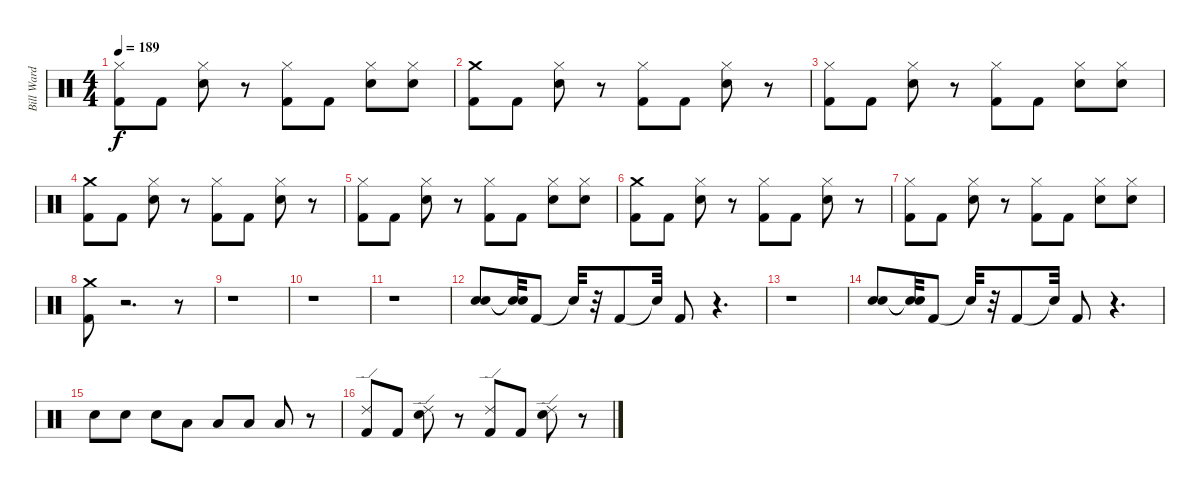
\track ("Bill Ward" "Bill Ward") {instrument percussion}
\staff {score}
\articulation defaults
\ts (4 4)
\tempo 189
\clef neutral
\ks c
("Hi-Hat (closed)" "Kick (hit) 2").8{dy f} "Kick (hit) 2".8 ("Electric Snare (hit)" "Hi-Hat (closed)").8 r.8 ("Hi-Hat (closed)" "Kick (hit) 2").8 "Kick (hit) 2".8 ("Hi-Hat (closed)" "Electric Snare (hit)").8 ("Hi-Hat (closed)" "Electric Snare (hit)").8 |
("Crash medium (hit)" "Kick (hit) 2").8 "Kick (hit) 2".8 ("Hi-Hat (closed)" "Electric Snare (hit)").8 r.8 ("Hi-Hat (closed)" "Kick (hit) 2").8 "Kick (hit) 2".8 ("Electric Snare (hit)" "Hi-Hat (closed)").8 r.8 |
("Hi-Hat (closed)" "Kick (hit) 2").8 "Kick (hit) 2".8 ("Hi-Hat (closed)" "Electric Snare (hit)").8 r.8 ("Hi-Hat (closed)" "Kick (hit) 2").8 "Kick (hit) 2".8 ("Hi-Hat (closed)" "Electric Snare (hit)").8 ("Hi-Hat (closed)" "Electric Snare (hit)").8 |
("Kick (hit) 2" "Crash medium (hit)").8 "Kick (hit) 2".8 ("Hi-Hat (closed)" "Electric Snare (hit)").8 r.8 ("Hi-Hat (closed)" "Kick (hit) 2").8 "Kick (hit) 2".8 ("Hi-Hat (closed)" "Electric Snare (hit)").8 r.8 |
("Kick (hit) 2" "Hi-Hat (closed)").8 "Kick (hit) 2".8 ("Electric Snare (hit)" "Hi-Hat (closed)").8 r.8 ("Hi-Hat (closed)" "Kick (hit) 2").8 "Kick (hit) 2".8 ("Hi-Hat (closed)" "Electric Snare (hit)").8 ("Hi-Hat (closed)" "Electric Snare (hit)").8 |
("Kick (hit) 2" "Crash medium (hit)").8 "Kick (hit) 2".8 ("Electric Snare (hit)" "Hi-Hat (closed)").8 r.8 ("Kick (hit) 2" "Hi-Hat (closed)").8 "Kick (hit) 2".8 ("Hi-Hat (closed)" "Electric Snare (hit)").8 r.8 |
("Hi-Hat (closed)" "Kick (hit) 2").8 "Kick (hit) 2".8 ("Hi-Hat (closed)" "Electric Snare (hit)").8 r.8 ("Hi-Hat (closed)" "Kick (hit) 2").8 "Kick (hit) 2".8 ("Hi-Hat (closed)" "Electric Snare (hit)").8 ("Electric Snare (hit)" "Hi-Hat (closed)").8 |
("Crash medium (hit)" "Kick (hit) 2").8 r.2{d} r.8 |
r.1 |
r.1 |
r.1 |
("Electric Snare (hit)" "Electric Snare (hit)").8 ("Snare (hit)"{t} "Snare (hit)"{t}).32 "Kick (hit) 2".8 "Snare (hit)"{t}.32 r.32 "Kick (hit) 2".8 "Snare (hit)"{t}.32 "Kick (hit) 2".8 r.4{d} |
r.1 |
("Electric Snare (hit)" "Electric Snare (hit)").8 ("Snare (hit)"{t} "Snare (hit)"{t}).32 "Kick (hit) 2".8 "Snare (hit)"{t}.32 r.32 "Kick (hit) 2".8 "Snare (hit)"{t}.32 "Kick (hit) 2".8 r.4{d} |
"Electric Snare (hit)".8 "Electric Snare (hit)".8 "Electric Snare (hit)".8 "Low Tom (hit)".8 "Low Tom (hit)".8 "Low Tom (hit)".8 "Low Tom (hit)".8 r.8 |
("Kick (hit) 2" "Ride (edge) 2").8 "Kick (hit) 2".8 ("Ride (edge) 2" "Electric Snare (hit)").8 r.8 ("Ride (edge) 2" "Kick (hit) 2").8 "Kick (hit) 2".8 ("Ride (edge) 2" "Electric Snare (hit)").8 r.8
